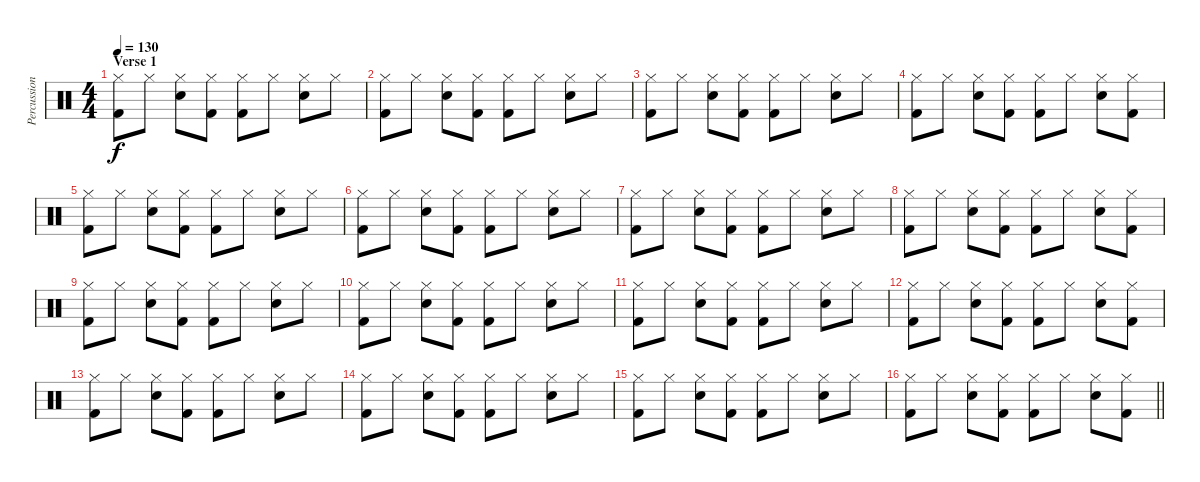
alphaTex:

\track ("Percussion" "Percussion") {instrument percussion}
\staff {score}
\articulation defaults
\ts (4 4)
\section ("" "Verse 1")
\tempo 130
\clef neutral
\ks c
("Hi-Hat (closed)" "Kick (hit) 2").8{dy f} "Hi-Hat (closed)".8 ("Hi-Hat (closed)" "Snare (hit) 2").8 ("Hi-Hat (closed)" "Kick (hit) 2").8 ("Hi-Hat (closed)" "Kick (hit) 2").8 "Hi-Hat (closed)".8 ("Hi-Hat (closed)" "Snare (hit) 2").8 "Hi-Hat (closed)".8 |
("Hi-Hat (closed)" "Kick (hit) 2").8 "Hi-Hat (closed)".8 ("Hi-Hat (closed)" "Snare (hit) 2").8 ("Hi-Hat (closed)" "Kick (hit) 2").8 ("Hi-Hat (closed)" "Kick (hit) 2").8 "Hi-Hat (closed)".8 ("Hi-Hat (closed)" "Snare (hit) 2").8 "Hi-Hat (closed)".8 |
("Hi-Hat (closed)" "Kick (hit) 2").8 "Hi-Hat (closed)".8 ("Hi-Hat (closed)" "Snare (hit) 2").8 ("Hi-Hat (closed)" "Kick (hit) 2").8 ("Hi-Hat (closed)" "Kick (hit) 2").8 "Hi-Hat (closed)".8 ("Hi-Hat (closed)" "Snare (hit) 2").8 "Hi-Hat (closed)".8 |
("Hi-Hat (closed)" "Kick (hit) 2").8 "Hi-Hat (closed)".8 ("Hi-Hat (closed)" "Snare (hit) 2").8 ("Hi-Hat (closed)" "Kick (hit) 2").8 ("Hi-Hat (closed)" "Kick (hit) 2").8 "Hi-Hat (closed)".8 ("Hi-Hat (closed)" "Snare (hit) 2").8 ("Hi-Hat (closed)" "Kick (hit) 2").8 |
("Hi-Hat (closed)" "Kick (hit) 2").8 "Hi-Hat (closed)".8 ("Hi-Hat (closed)" "Snare (hit) 2").8 ("Hi-Hat (closed)" "Kick (hit) 2").8 ("Hi-Hat (closed)" "Kick (hit) 2").8 "Hi-Hat (closed)".8 ("Hi-Hat (closed)" "Snare (hit) 2").8 "Hi-Hat (closed)".8 |
("Hi-Hat (closed)" "Kick (hit) 2").8 "Hi-Hat (closed)".8 ("Hi-Hat (closed)" "Snare (hit) 2").8 ("Hi-Hat (closed)" "Kick (hit) 2").8 ("Hi-Hat (closed)" "Kick (hit) 2").8 "Hi-Hat (closed)".8 ("Hi-Hat (closed)" "Snare (hit) 2").8 "Hi-Hat (closed)".8 |
("Hi-Hat (closed)" "Kick (hit) 2").8 "Hi-Hat (closed)".8 ("Hi-Hat (closed)" "Snare (hit) 2").8 ("Hi-Hat (closed)" "Kick (hit) 2").8 ("Hi-Hat (closed)" "Kick (hit) 2").8 "Hi-Hat (closed)".8 ("Hi-Hat (closed)" "Snare (hit) 2").8 "Hi-Hat (closed)".8 |
("Hi-Hat (closed)" "Kick (hit) 2").8 "Hi-Hat (closed)".8 ("Hi-Hat (closed)" "Snare (hit) 2").8 ("Hi-Hat (closed)" "Kick (hit) 2").8 ("Hi-Hat (closed)" "Kick (hit) 2").8 "Hi-Hat (closed)".8 ("Hi-Hat (closed)" "Snare (hit) 2").8 ("Hi-Hat (closed)" "Kick (hit) 2").8 |
("Hi-Hat (closed)" "Kick (hit) 2").8 "Hi-Hat (closed)".8 ("Hi-Hat (closed)" "Snare (hit) 2").8 ("Hi-Hat (closed)" "Kick (hit) 2").8 ("Hi-Hat (closed)" "Kick (hit) 2").8 "Hi-Hat (closed)".8 ("Hi-Hat (closed)" "Snare (hit) 2").8 "Hi-Hat (closed)".8 |
("Hi-Hat (closed)" "Kick (hit) 2").8 "Hi-Hat (closed)".8 ("Hi-Hat (closed)" "Snare (hit) 2").8 ("Hi-Hat (closed)" "Kick (hit) 2").8 ("Hi-Hat (closed)" "Kick (hit) 2").8 "Hi-Hat (closed)".8 ("Hi-Hat (closed)" "Snare (hit) 2").8 "Hi-Hat (closed)".8 |
("Hi-Hat (closed)" "Kick (hit) 2").8 "Hi-Hat (closed)".8 ("Hi-Hat (closed)" "Snare (hit) 2").8 ("Hi-Hat (closed)" "Kick (hit) 2").8 ("Hi-Hat (closed)" "Kick (hit) 2").8 "Hi-Hat (closed)".8 ("Hi-Hat (closed)" "Snare (hit) 2").8 "Hi-Hat (closed)".8 |
("Hi-Hat (closed)" "Kick (hit) 2").8 "Hi-Hat (closed)".8 ("Hi-Hat (closed)" "Snare (hit) 2").8 ("Hi-Hat (closed)" "Kick (hit) 2").8 ("Hi-Hat (closed)" "Kick (hit) 2").8 "Hi-Hat (closed)".8 ("Hi-Hat (closed)" "Snare (hit) 2").8 ("Hi-Hat (closed)" "Kick (hit) 2").8 |
("Hi-Hat (closed)" "Kick (hit) 2").8 "Hi-Hat (closed)".8 ("Hi-Hat (closed)" "Snare (hit) 2").8 ("Hi-Hat (closed)" "Kick (hit) 2").8 ("Hi-Hat (closed)" "Kick (hit) 2").8 "Hi-Hat (closed)".8 ("Hi-Hat (closed)" "Snare (hit) 2").8 "Hi-Hat (closed)".8 |
("Hi-Hat (closed)" "Kick (hit) 2").8 "Hi-Hat (closed)".8 ("Hi-Hat (closed)" "Snare (hit) 2").8 ("Hi-Hat (closed)" "Kick (hit) 2").8 ("Hi-Hat (closed)" "Kick (hit) 2").8 "Hi-Hat (closed)".8 ("Hi-Hat (closed)" "Snare (hit) 2").8 "Hi-Hat (closed)".8 |
("Hi-Hat (closed)" "Kick (hit) 2").8 "Hi-Hat (closed)".8 ("Hi-Hat (closed)" "Snare (hit) 2").8 ("Hi-Hat (closed)" "Kick (hit) 2").8 ("Hi-Hat (closed)" "Kick (hit) 2").8 "Hi-Hat (closed)".8 ("Hi-Hat (closed)" "Snare (hit) 2").8 "Hi-Hat (closed)".8 |
\barLineRight lightlight
("Hi-Hat (closed)" "Kick (hit) 2").8 "Hi-Hat (closed)".8 ("Hi-Hat (closed)" "Snare (hit) 2").8 ("Hi-Hat (closed)" "Kick (hit) 2").8 ("Hi-Hat (closed)" "Kick (hit) 2").8 "Hi-Hat (closed)".8 ("Hi-Hat (closed)" "Snare (hit) 2").8 ("Hi-Hat (closed)" "Kick (hit) 2").8
